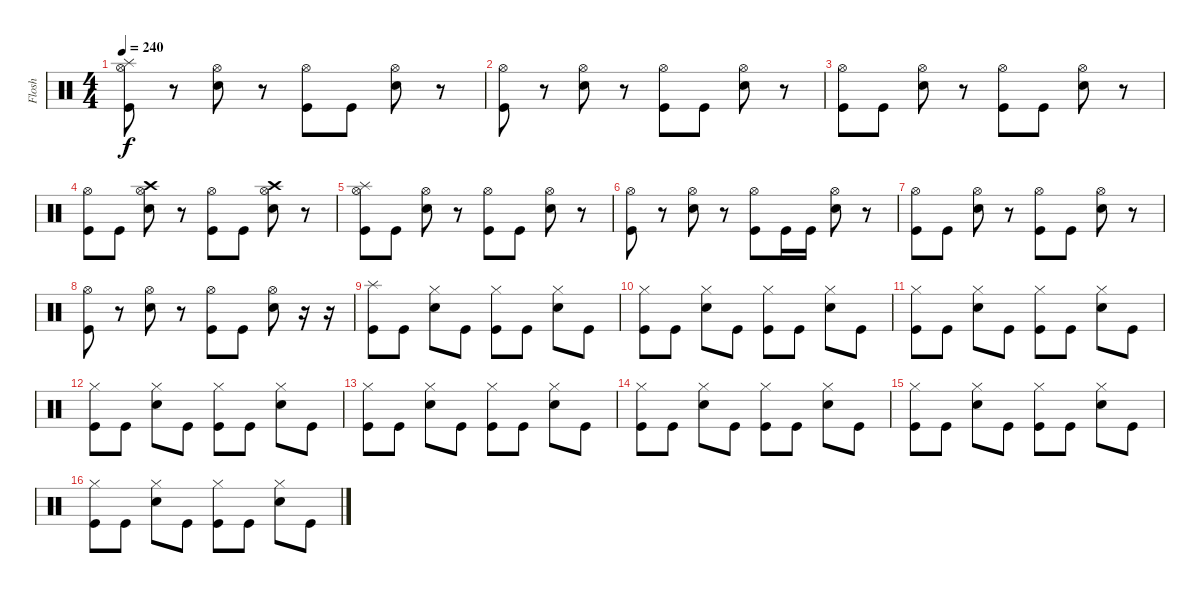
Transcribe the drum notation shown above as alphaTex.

\track ("Flosh" "Flosh") {instrument percussion}
\staff {score}
\articulation defaults
\ts (4 4)
\tempo 240
\clef neutral
\ks c
("Splash (hit)" "Hi-Hat (open)" "Kick (hit)").8{dy f} r.8 ("Hi-Hat (open)" "Snare (hit) 2").8 r.8 ("Hi-Hat (open)" "Kick (hit)").8 "Kick (hit)".8 ("Hi-Hat (open)" "Snare (hit) 2").8 r.8 |
("Hi-Hat (open)" "Kick (hit)").8 r.8 ("Hi-Hat (open)" "Snare (hit) 2").8 r.8 ("Hi-Hat (open)" "Kick (hit)").8 "Kick (hit)".8 ("Hi-Hat (open)" "Snare (hit) 2").8 r.8 |
("Hi-Hat (open)" "Kick (hit)").8 "Kick (hit)".8 ("Hi-Hat (open)" "Snare (hit) 2").8 r.8 ("Hi-Hat (open)" "Kick (hit)").8 "Kick (hit)".8 ("Hi-Hat (open)" "Snare (hit) 2").8 r.8 |
("Hi-Hat (open)" "Kick (hit)").8 "Kick (hit)".8 ("Crash high (hit)" "Hi-Hat (open)" "Snare (hit) 2").8 r.8 ("Hi-Hat (open)" "Kick (hit)").8 "Kick (hit)".8 ("Crash high (hit)" "Hi-Hat (open)" "Snare (hit) 2").8 r.8 |
("Splash (hit)" "Hi-Hat (open)" "Kick (hit)").8 "Kick (hit)".8 ("Hi-Hat (open)" "Snare (hit) 2").8 r.8 ("Hi-Hat (open)" "Kick (hit)").8 "Kick (hit)".8 ("Hi-Hat (open)" "Snare (hit) 2").8 r.8 |
("Hi-Hat (open)" "Kick (hit)").8 r.8 ("Hi-Hat (open)" "Snare (hit) 2").8 r.8 ("Hi-Hat (open)" "Kick (hit)").8 "Kick (hit)".16 "Kick (hit)".16 ("Hi-Hat (open)" "Snare (hit) 2").8 r.8 |
("Hi-Hat (open)" "Kick (hit)").8 "Kick (hit)".8 ("Hi-Hat (open)" "Snare (hit) 2").8 r.8 ("Hi-Hat (open)" "Kick (hit)").8 "Kick (hit)".8 ("Hi-Hat (open)" "Snare (hit) 2").8 r.8 |
("Hi-Hat (open)" "Kick (hit)").8 r.8 ("Hi-Hat (open)" "Snare (hit) 2").8 r.8 ("Hi-Hat (open)" "Kick (hit)").8 "Kick (hit)".8 ("Hi-Hat (open)" "Snare (hit) 2").8 r.16 r.16 |
("Splash (hit)" "Kick (hit)").8 "Kick (hit)".8 ("Hi-Hat (closed)" "Snare (hit) 2").8 "Kick (hit)".8 ("Hi-Hat (closed)" "Kick (hit)").8 "Kick (hit)".8 ("Hi-Hat (closed)" "Snare (hit) 2").8 "Kick (hit)".8 |
("Hi-Hat (closed)" "Kick (hit)").8 "Kick (hit)".8 ("Hi-Hat (closed)" "Snare (hit) 2").8 "Kick (hit)".8 ("Hi-Hat (closed)" "Kick (hit)").8 "Kick (hit)".8 ("Hi-Hat (closed)" "Snare (hit) 2").8 "Kick (hit)".8 |
("Hi-Hat (closed)" "Kick (hit)").8 "Kick (hit)".8 ("Hi-Hat (closed)" "Snare (hit) 2").8 "Kick (hit)".8 ("Hi-Hat (closed)" "Kick (hit)").8 "Kick (hit)".8 ("Hi-Hat (closed)" "Snare (hit) 2").8 "Kick (hit)".8 |
("Hi-Hat (closed)" "Kick (hit)").8 "Kick (hit)".8 ("Hi-Hat (closed)" "Snare (hit) 2").8 "Kick (hit)".8 ("Hi-Hat (closed)" "Kick (hit)").8 "Kick (hit)".8 ("Hi-Hat (closed)" "Snare (hit) 2").8 "Kick (hit)".8 |
("Hi-Hat (closed)" "Kick (hit)").8 "Kick (hit)".8 ("Hi-Hat (closed)" "Snare (hit) 2").8 "Kick (hit)".8 ("Hi-Hat (closed)" "Kick (hit)").8 "Kick (hit)".8 ("Hi-Hat (closed)" "Snare (hit) 2").8 "Kick (hit)".8 |
("Hi-Hat (closed)" "Kick (hit)").8 "Kick (hit)".8 ("Hi-Hat (closed)" "Snare (hit) 2").8 "Kick (hit)".8 ("Hi-Hat (closed)" "Kick (hit)").8 "Kick (hit)".8 ("Hi-Hat (closed)" "Snare (hit) 2").8 "Kick (hit)".8 |
("Hi-Hat (closed)" "Kick (hit)").8 "Kick (hit)".8 ("Hi-Hat (closed)" "Snare (hit) 2").8 "Kick (hit)".8 ("Hi-Hat (closed)" "Kick (hit)").8 "Kick (hit)".8 ("Hi-Hat (closed)" "Snare (hit) 2").8 "Kick (hit)".8 |
("Hi-Hat (closed)" "Kick (hit)").8 "Kick (hit)".8 ("Hi-Hat (closed)" "Snare (hit) 2").8 "Kick (hit)".8 ("Hi-Hat (closed)" "Kick (hit)").8 "Kick (hit)".8 ("Hi-Hat (closed)" "Snare (hit) 2").8 "Kick (hit)".8
